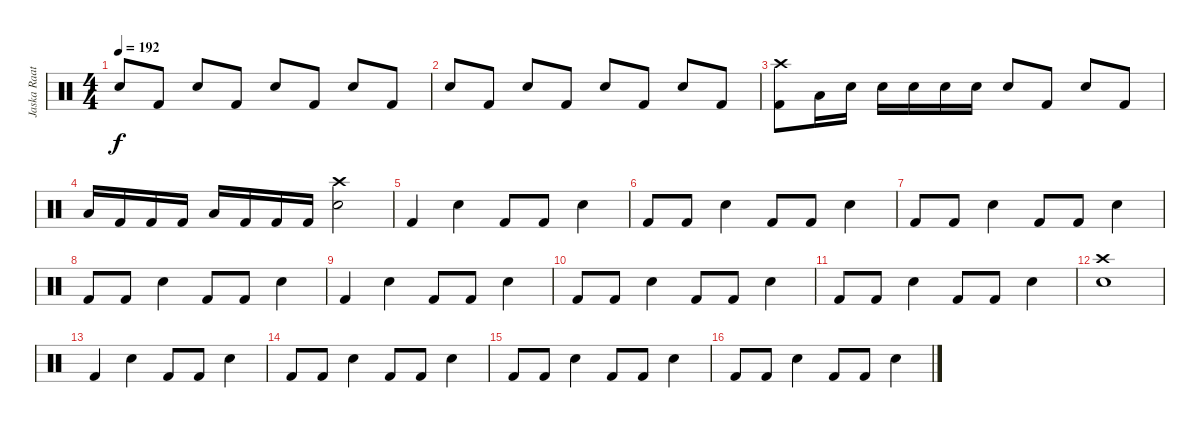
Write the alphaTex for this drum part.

\track ("Jaska Raatikainen" "Jaska Raat") {instrument percussion}
\staff {score}
\articulation defaults
\ts (4 4)
\tempo 192
\clef neutral
\ks c "Snare (hit) 2".8{dy f} "Kick (hit) 2".8 "Snare (hit) 2".8 "Kick (hit) 2".8 "Snare (hit) 2".8 "Kick (hit) 2".8 "Snare (hit) 2".8 "Kick (hit) 2".8
|
"Snare (hit) 2".8 "Kick (hit) 2".8 "Snare (hit) 2".8 "Kick (hit) 2".8 "Snare (hit) 2".8 "Kick (hit) 2".8 "Snare (hit) 2".8 "Kick (hit) 2".8 |
("Crash high (hit)" "Kick (hit) 2").8 "Low Floor Tom (hit)".16 "Snare (hit) 2".16 "Snare (hit) 2".16 "Snare (hit) 2".16 "Snare (hit) 2".16 "Snare (hit) 2".16 "Snare (hit) 2".8 "Kick (hit) 2".8 "Snare (hit) 2".8 "Kick (hit) 2".8 |
"Low Floor Tom (hit)".16 "Kick (hit) 2".16 "Kick (hit) 2".16 "Kick (hit) 2".16 "Low Floor Tom (hit)".16 "Kick (hit) 2".16 "Kick (hit) 2".16 "Kick (hit) 2".16 ("Crash high (hit)" "Snare (hit) 2").2 |
"Kick (hit) 2".4 "Snare (hit) 2".4 "Kick (hit) 2".8 "Kick (hit) 2".8 "Snare (hit) 2".4 |
"Kick (hit) 2".8 "Kick (hit) 2".8 "Snare (hit) 2".4 "Kick (hit) 2".8 "Kick (hit) 2".8 "Snare (hit) 2".4 |
"Kick (hit) 2".8 "Kick (hit) 2".8 "Snare (hit) 2".4 "Kick (hit) 2".8 "Kick (hit) 2".8 "Snare (hit) 2".4 |
"Kick (hit) 2".8 "Kick (hit) 2".8 "Snare (hit) 2".4 "Kick (hit) 2".8 "Kick (hit) 2".8 "Snare (hit) 2".4 |
"Kick (hit) 2".4 "Snare (hit) 2".4 "Kick (hit) 2".8 "Kick (hit) 2".8 "Snare (hit) 2".4 |
"Kick (hit) 2".8 "Kick (hit) 2".8 "Snare (hit) 2".4 "Kick (hit) 2".8 "Kick (hit) 2".8 "Snare (hit) 2".4 |
"Kick (hit) 2".8 "Kick (hit) 2".8 "Snare (hit) 2".4 "Kick (hit) 2".8 "Kick (hit) 2".8 "Snare (hit) 2".4 |
("Crash high (hit)" "Snare (hit) 2").1 |
"Kick (hit) 2".4 "Snare (hit) 2".4 "Kick (hit) 2".8 "Kick (hit) 2".8 "Snare (hit) 2".4 |
"Kick (hit) 2".8 "Kick (hit) 2".8 "Snare (hit) 2".4 "Kick (hit) 2".8 "Kick (hit) 2".8 "Snare (hit) 2".4 |
"Kick (hit) 2".8 "Kick (hit) 2".8 "Snare (hit) 2".4 "Kick (hit) 2".8 "Kick (hit) 2".8 "Snare (hit) 2".4 |
"Kick (hit) 2".8 "Kick (hit) 2".8 "Snare (hit) 2".4 "Kick (hit) 2".8 "Kick (hit) 2".8 "Snare (hit) 2".4
